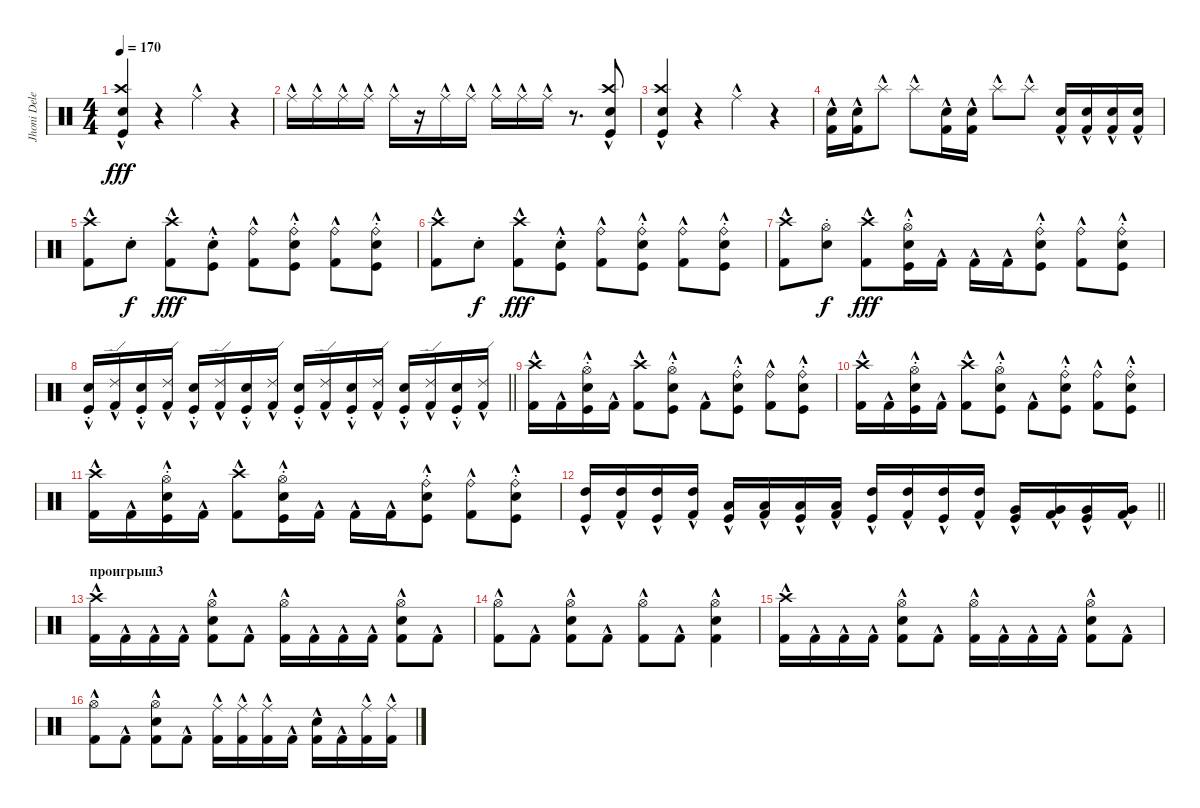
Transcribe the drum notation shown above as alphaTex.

\track ("Jhoni Delenger" "Jhoni Dele") {instrument percussion}
\staff {score}
\articulation defaults
\ts (4 4)
\tempo 170
\clef neutral
\ks c
("Snare (hit) 2" "Crash high (hit)" "Kick (hit)"{hac}).4{dy fff} r.4 "Ride (middle)"{hac}.4 r.4 |
"Ride (middle)"{hac}.16 "Ride (middle)"{hac}.16 "Ride (middle)"{hac}.16 "Ride (middle)"{hac}.16 "Ride (middle)"{hac}.16 r.16 "Ride (middle)"{hac}.16 "Ride (middle)"{hac}.16 "Ride (middle)"{hac}.16 "Ride (middle)"{hac}.16 "Ride (middle)"{hac}.16 r.8{d} ("Snare (hit) 2" "Crash high (hit)"{hac} "Kick (hit)"{hac}).8 |
("Snare (hit) 2" "Crash high (hit)"{hac} "Kick (hit)"{hac}).4 r.4 "Ride (middle)"{hac}.4 r.4 |
("Snare (hit) 2" "Kick (hit) 2"{hac}).16 ("Snare (hit) 2" "Kick (hit) 2"{hac}).16 "Splash (hit)"{hac}.8 "Splash (hit)"{hac}.8 ("Snare (hit) 2" "Kick (hit) 2"{hac}).16 ("Snare (hit) 2" "Kick (hit) 2"{hac}).16 "Splash (hit)"{hac}.8 "Splash (hit)"{hac}.8 ("Snare (hit) 2" "Kick (hit) 2"{hac}).16 ("Snare (hit) 2" "Kick (hit) 2"{hac}).16 ("Snare (hit) 2" "Kick (hit) 2"{hac}).16 ("Snare (hit) 2" "Kick (hit) 2"{hac}).16 |
("Kick (hit) 2"{hac} "Crash high (hit)").8 "Snare (hit) 2"{st}.8{dy f} ("Kick (hit) 2"{hac} "Crash high (hit)").8{dy fff} ("Snare (hit) 2"{st} "Kick (hit)"{hac}).8 ("Kick (hit) 2"{hac} "Ride (bell)"{hac}).8 ("Snare (hit) 2"{st} "Ride (bell)"{hac} "Kick (hit)"{hac}).8 ("Kick (hit) 2"{hac} "Ride (bell)"{hac}).8 ("Snare (hit) 2"{st} "Ride (bell)"{hac} "Kick (hit)"{hac}).8 |
("Kick (hit) 2"{hac} "Crash high (hit)").8 "Snare (hit) 2"{st}.8{dy f} ("Kick (hit) 2"{hac} "Crash high (hit)").8{dy fff} ("Snare (hit) 2"{st} "Kick (hit)"{hac}).8 ("Kick (hit) 2"{hac} "Ride (bell)"{hac}).8 ("Snare (hit) 2"{st} "Ride (bell)"{hac} "Kick (hit)"{hac}).8 ("Kick (hit) 2"{hac} "Ride (bell)"{hac}).8 ("Snare (hit) 2"{st} "Ride (bell)"{hac} "Kick (hit)"{hac}).8 |
("Kick (hit) 2"{hac} "Crash high (hit)").8 ("Snare (hit) 2"{st} "Hi-Hat (open)").8{dy f} ("Kick (hit) 2"{hac} "Crash high (hit)").8{dy fff} ("Snare (hit) 2"{st} "Hi-Hat (open)" "Kick (hit)"{hac}).16 "Kick (hit) 2"{hac}.16 "Kick (hit) 2"{hac}.16 "Kick (hit) 2"{hac}.16 ("Snare (hit) 2"{st} "Ride (bell)"{hac} "Kick (hit)"{hac}).8 ("Kick (hit) 2"{hac} "Ride (bell)"{hac}).8 ("Snare (hit) 2"{st} "Ride (bell)"{hac} "Kick (hit)"{hac}).8 |
\barLineRight lightlight
("Snare (hit) 2"{st} "Kick (hit)"{hac}).16 ("Kick (hit) 2"{hac} "Ride (edge) 2"{hac}).16 ("Snare (hit) 2"{st} "Kick (hit)"{hac}).16 ("Kick (hit) 2"{hac} "Ride (edge) 2"{hac}).16 ("Snare (hit) 2"{st} "Kick (hit)"{hac}).16 ("Kick (hit) 2"{hac} "Ride (edge) 2"{hac}).16 ("Snare (hit) 2"{st} "Kick (hit)"{hac}).16 ("Kick (hit) 2"{hac} "Ride (edge) 2"{hac}).16 ("Snare (hit) 2"{st} "Kick (hit)"{hac}).16 ("Kick (hit) 2"{hac} "Ride (edge) 2"{hac}).16 ("Snare (hit) 2"{st} "Kick (hit)"{hac}).16 ("Kick (hit) 2"{hac} "Ride (edge) 2"{hac}).16 ("Snare (hit) 2"{st} "Kick (hit)"{hac}).16 ("Kick (hit) 2"{hac} "Ride (edge) 2"{hac}).16 ("Snare (hit) 2"{st} "Kick (hit)"{hac}).16 ("Kick (hit) 2"{hac} "Ride (edge) 2"{hac}).16 |
("Kick (hit) 2"{hac} "Crash high (hit)").16 "Kick (hit) 2"{hac}.16 ("Snare (hit) 2"{st} "Hi-Hat (open)" "Kick (hit)"{hac}).16 "Kick (hit) 2"{hac}.16 ("Kick (hit) 2"{hac} "Crash high (hit)").8 ("Snare (hit) 2"{st} "Hi-Hat (open)" "Kick (hit)"{hac}).8 "Kick (hit) 2"{hac}.8 ("Snare (hit) 2"{st} "Ride (bell)"{hac} "Kick (hit)"{hac}).8 ("Kick (hit) 2"{hac} "Ride (bell)"{hac}).8 ("Snare (hit) 2"{st} "Ride (bell)"{hac} "Kick (hit)"{hac}).8 |
("Kick (hit) 2"{hac} "Crash high (hit)").16 "Kick (hit) 2"{hac}.16 ("Snare (hit) 2"{st} "Hi-Hat (open)" "Kick (hit)"{hac}).16 "Kick (hit) 2"{hac}.16 ("Kick (hit) 2"{hac} "Crash high (hit)").8 ("Snare (hit) 2"{st} "Hi-Hat (open)" "Kick (hit)"{hac}).8 "Kick (hit) 2"{hac}.8 ("Snare (hit) 2"{st} "Ride (bell)"{hac} "Kick (hit)"{hac}).8 ("Kick (hit) 2"{hac} "Ride (bell)"{hac}).8 ("Snare (hit) 2"{st} "Ride (bell)"{hac} "Kick (hit)"{hac}).8 |
("Kick (hit) 2"{hac} "Crash high (hit)").16 "Kick (hit) 2"{hac}.16 ("Snare (hit) 2"{st} "Hi-Hat (open)" "Kick (hit)"{hac}).16 "Kick (hit) 2"{hac}.16 ("Kick (hit) 2"{hac} "Crash high (hit)").8 ("Snare (hit) 2"{st} "Hi-Hat (open)" "Kick (hit)"{hac}).16 "Kick (hit) 2"{hac}.16 "Kick (hit) 2"{hac}.16 "Kick (hit) 2"{hac}.16 ("Snare (hit) 2"{st} "Ride (bell)"{hac} "Kick (hit)"{hac}).8 ("Kick (hit) 2"{hac} "Ride (bell)"{hac}).8 ("Snare (hit) 2"{st} "Ride (bell)"{hac} "Kick (hit)"{hac}).8 |
\barLineRight lightlight
("High Tom (hit)"{hac} "Kick (hit)"{hac}).16 ("Kick (hit) 2"{hac} "High Tom (hit)"{hac}).16 ("High Tom (hit)"{hac} "Kick (hit)"{hac}).16 ("Kick (hit) 2"{hac} "High Tom (hit)"{hac}).16 ("Low Tom (hit)"{hac} "Kick (hit)"{hac}).16 ("Kick (hit) 2"{hac} "Low Tom (hit)"{hac}).16 ("Low Tom (hit)"{hac} "Kick (hit)"{hac}).16 ("Kick (hit) 2"{hac} "Low Tom (hit)"{hac}).16 ("High Tom (hit)"{hac} "Kick (hit)"{hac}).16 ("Kick (hit) 2"{hac} "High Tom (hit)"{hac}).16 ("High Tom (hit)"{hac} "Kick (hit)"{hac}).16 ("Kick (hit) 2"{hac} "High Tom (hit)"{hac}).16 ("Very Low Tom (hit)"{hac} "Kick (hit)"{hac}).16 ("Kick (hit) 2"{hac} "Very Low Tom (hit)"{hac}).16 ("Very Low Tom (hit)"{hac} "Kick (hit)"{hac}).16 ("Kick (hit) 2"{hac} "Very Low Tom (hit)"{hac}).16 |
\section ("" "проигрыш3")
("Crash high (hit)" "Kick (hit) 2"{hac}).16 "Kick (hit) 2"{hac}.16 "Kick (hit) 2"{hac}.16 "Kick (hit) 2"{hac}.16 ("Hi-Hat (open)" "Snare (hit) 2" "Kick (hit) 2"{hac}).8 "Kick (hit) 2"{hac}.8 ("Hi-Hat (open)" "Kick (hit) 2"{hac}).16 "Kick (hit) 2"{hac}.16 "Kick (hit) 2"{hac}.16 "Kick (hit) 2"{hac}.16 ("Hi-Hat (open)" "Snare (hit) 2" "Kick (hit) 2"{hac}).8 "Kick (hit) 2"{hac}.8 |
("Hi-Hat (open)" "Kick (hit) 2"{hac}).8 "Kick (hit) 2"{hac}.8 ("Hi-Hat (open)" "Snare (hit) 2" "Kick (hit) 2"{hac}).8 "Kick (hit) 2"{hac}.8 ("Hi-Hat (open)" "Kick (hit) 2"{hac}).8 "Kick (hit) 2"{hac}.8 ("Hi-Hat (open)" "Snare (hit) 2" "Kick (hit) 2"{hac}).4 |
("Crash high (hit)" "Kick (hit) 2"{hac}).16 "Kick (hit) 2"{hac}.16 "Kick (hit) 2"{hac}.16 "Kick (hit) 2"{hac}.16 ("Hi-Hat (open)" "Snare (hit) 2" "Kick (hit) 2"{hac}).8 "Kick (hit) 2"{hac}.8 ("Hi-Hat (open)" "Kick (hit) 2"{hac}).16 "Kick (hit) 2"{hac}.16 "Kick (hit) 2"{hac}.16 "Kick (hit) 2"{hac}.16 ("Hi-Hat (open)" "Snare (hit) 2" "Kick (hit) 2"{hac}).8 "Kick (hit) 2"{hac}.8 |
("Hi-Hat (open)" "Kick (hit) 2"{hac}).8 "Kick (hit) 2"{hac}.8 ("Hi-Hat (open)" "Snare (hit) 2" "Kick (hit) 2"{hac}).8 "Kick (hit) 2"{hac}.8 ("Ride (middle)"{hac} "Kick (hit) 2"{hac}).16 ("Kick (hit) 2"{hac} "Ride (middle)"{hac}).16 ("Kick (hit) 2"{hac} "Ride (middle)"{hac}).16 "Kick (hit) 2"{hac}.16 ("Snare (hit) 2" "Kick (hit) 2"{hac}).16 "Kick (hit) 2"{hac}.16 ("Kick (hit) 2"{hac} "Ride (middle)"{hac}).16 ("Kick (hit) 2"{hac} "Ride (middle)"{hac}).16
